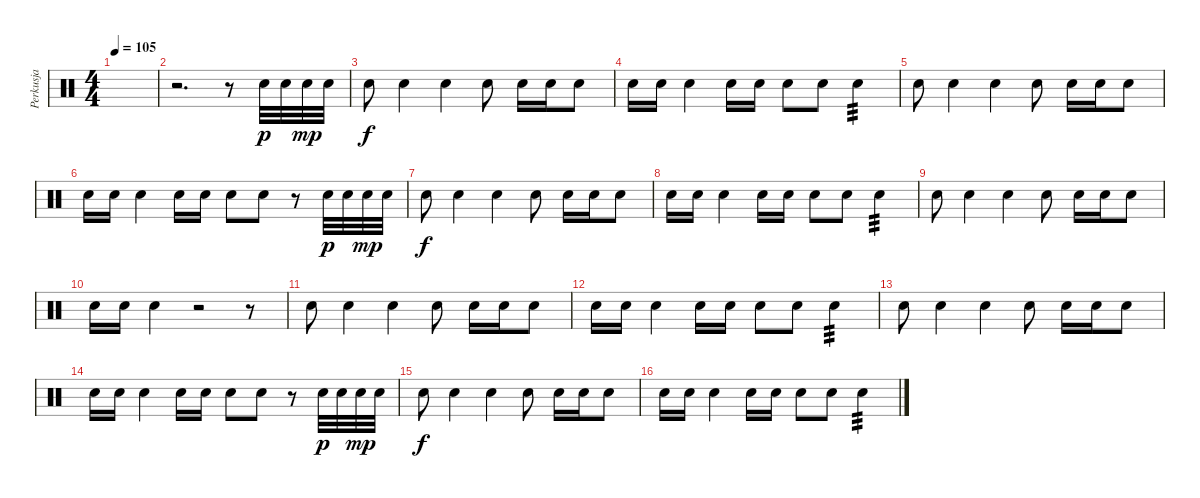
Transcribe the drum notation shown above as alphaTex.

\track ("Perkusja" "Perkusja") {instrument percussion}
\staff {score}
\articulation defaults
\ts (4 4)
\tempo 105
\clef neutral
\ks c
|
r.2{d} r.8 "Snare (hit) 2".32{dy p} "Snare (hit) 2".32 "Snare (hit) 2".32{dy mp} "Snare (hit) 2".32 |
"Snare (hit) 2".8{dy f} "Snare (hit) 2".4 "Snare (hit) 2".4 "Snare (hit) 2".8 "Snare (hit) 2".16 "Snare (hit) 2".16 "Snare (hit) 2".8 |
"Snare (hit) 2".16 "Snare (hit) 2".16 "Snare (hit) 2".4 "Snare (hit) 2".16 "Snare (hit) 2".16 "Snare (hit) 2".8 "Snare (hit) 2".8 "Snare (hit) 2".4{tp 3} |
"Snare (hit) 2".8 "Snare (hit) 2".4 "Snare (hit) 2".4 "Snare (hit) 2".8 "Snare (hit) 2".16 "Snare (hit) 2".16 "Snare (hit) 2".8 |
"Snare (hit) 2".16 "Snare (hit) 2".16 "Snare (hit) 2".4 "Snare (hit) 2".16 "Snare (hit) 2".16 "Snare (hit) 2".8 "Snare (hit) 2".8 r.8 "Snare (hit) 2".32{dy p} "Snare (hit) 2".32 "Snare (hit) 2".32{dy mp} "Snare (hit) 2".32 |
"Snare (hit) 2".8{dy f} "Snare (hit) 2".4 "Snare (hit) 2".4 "Snare (hit) 2".8 "Snare (hit) 2".16 "Snare (hit) 2".16 "Snare (hit) 2".8 |
"Snare (hit) 2".16 "Snare (hit) 2".16 "Snare (hit) 2".4 "Snare (hit) 2".16 "Snare (hit) 2".16 "Snare (hit) 2".8 "Snare (hit) 2".8 "Snare (hit) 2".4{tp 3} |
"Snare (hit) 2".8 "Snare (hit) 2".4 "Snare (hit) 2".4 "Snare (hit) 2".8 "Snare (hit) 2".16 "Snare (hit) 2".16 "Snare (hit) 2".8 |
"Snare (hit) 2".16 "Snare (hit) 2".16 "Snare (hit) 2".4 r.2 r.8 |
"Snare (hit) 2".8 "Snare (hit) 2".4 "Snare (hit) 2".4 "Snare (hit) 2".8 "Snare (hit) 2".16 "Snare (hit) 2".16 "Snare (hit) 2".8 |
"Snare (hit) 2".16 "Snare (hit) 2".16 "Snare (hit) 2".4 "Snare (hit) 2".16 "Snare (hit) 2".16 "Snare (hit) 2".8 "Snare (hit) 2".8 "Snare (hit) 2".4{tp 3} |
"Snare (hit) 2".8 "Snare (hit) 2".4 "Snare (hit) 2".4 "Snare (hit) 2".8 "Snare (hit) 2".16 "Snare (hit) 2".16 "Snare (hit) 2".8 |
"Snare (hit) 2".16 "Snare (hit) 2".16 "Snare (hit) 2".4 "Snare (hit) 2".16 "Snare (hit) 2".16 "Snare (hit) 2".8 "Snare (hit) 2".8 r.8 "Snare (hit) 2".32{dy p} "Snare (hit) 2".32 "Snare (hit) 2".32{dy mp} "Snare (hit) 2".32 |
"Snare (hit) 2".8{dy f} "Snare (hit) 2".4 "Snare (hit) 2".4 "Snare (hit) 2".8 "Snare (hit) 2".16 "Snare (hit) 2".16 "Snare (hit) 2".8 |
"Snare (hit) 2".16 "Snare (hit) 2".16 "Snare (hit) 2".4 "Snare (hit) 2".16 "Snare (hit) 2".16 "Snare (hit) 2".8 "Snare (hit) 2".8 "Snare (hit) 2".4{tp 3}
